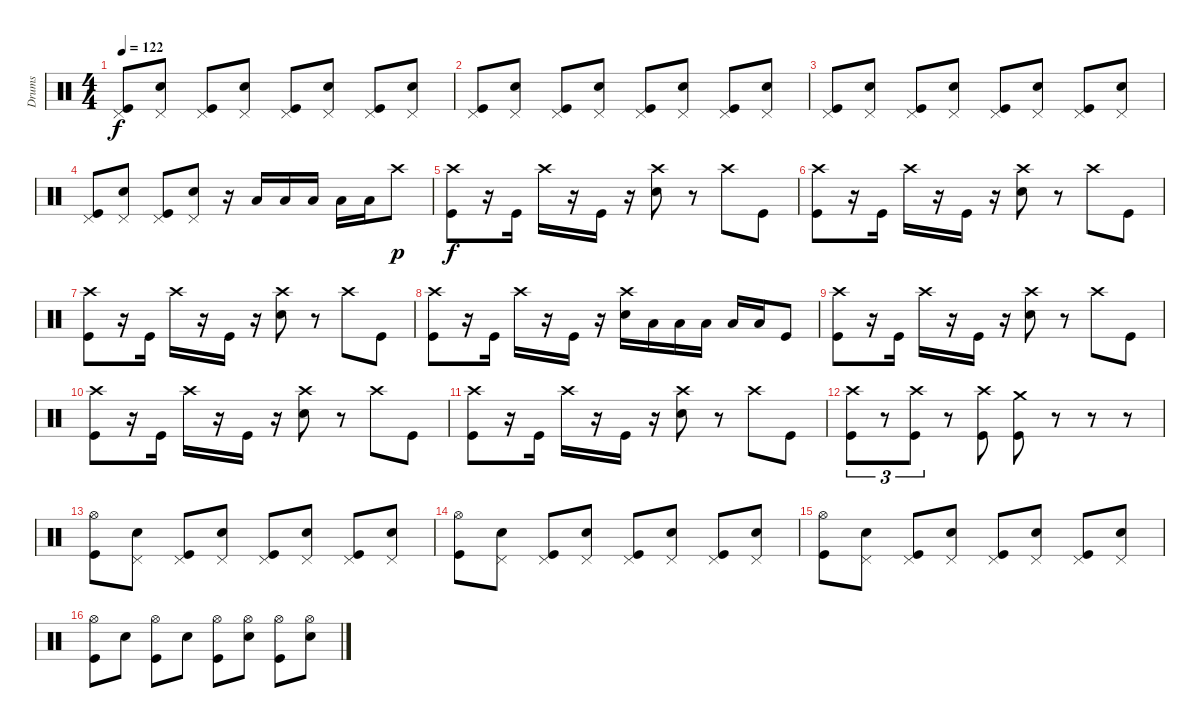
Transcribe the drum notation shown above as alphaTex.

\track ("Drums" "Drums") {instrument percussion}
\staff {score}
\articulation defaults
\ts (4 4)
\tempo 122
\clef neutral
\ks c
("Pedal Hi-Hat (hit)" "Kick (hit)").8{dy f} ("Pedal Hi-Hat (hit)" "Snare (hit) 2").8 ("Pedal Hi-Hat (hit)" "Kick (hit)").8 ("Pedal Hi-Hat (hit)" "Snare (hit) 2").8 ("Pedal Hi-Hat (hit)" "Kick (hit)").8 ("Pedal Hi-Hat (hit)" "Snare (hit) 2").8 ("Pedal Hi-Hat (hit)" "Kick (hit)").8 ("Pedal Hi-Hat (hit)" "Snare (hit) 2").8 |
("Pedal Hi-Hat (hit)" "Kick (hit)").8 ("Pedal Hi-Hat (hit)" "Snare (hit) 2").8 ("Pedal Hi-Hat (hit)" "Kick (hit)").8 ("Pedal Hi-Hat (hit)" "Snare (hit) 2").8 ("Pedal Hi-Hat (hit)" "Kick (hit)").8 ("Pedal Hi-Hat (hit)" "Snare (hit) 2").8 ("Pedal Hi-Hat (hit)" "Kick (hit)").8 ("Pedal Hi-Hat (hit)" "Snare (hit) 2").8 |
("Pedal Hi-Hat (hit)" "Kick (hit)").8 ("Pedal Hi-Hat (hit)" "Snare (hit) 2").8 ("Pedal Hi-Hat (hit)" "Kick (hit)").8 ("Pedal Hi-Hat (hit)" "Snare (hit) 2").8 ("Pedal Hi-Hat (hit)" "Kick (hit)").8 ("Pedal Hi-Hat (hit)" "Snare (hit) 2").8 ("Pedal Hi-Hat (hit)" "Kick (hit)").8 ("Pedal Hi-Hat (hit)" "Snare (hit) 2").8 |
("Pedal Hi-Hat (hit)" "Kick (hit)").8 ("Pedal Hi-Hat (hit)" "Snare (hit) 2").8 ("Pedal Hi-Hat (hit)" "Kick (hit)").8 ("Pedal Hi-Hat (hit)" "Snare (hit) 2").8 r.16 "Low Tom (hit)".16 "Low Tom (hit)".16 "Low Tom (hit)".16 "Low Floor Tom (hit)".16 "Low Floor Tom (hit)".16 "Crash high (hit)".8{dy p} |
("Crash high (hit)" "Kick (hit)").8{dy f} r.16 "Kick (hit)".16 "Crash high (hit)".16 r.16 "Kick (hit)".16 r.16 ("Crash high (hit)" "Snare (hit) 2").8 r.8 "Crash high (hit)".8 "Kick (hit)".8 |
("Crash high (hit)" "Kick (hit)").8 r.16 "Kick (hit)".16 "Crash high (hit)".16 r.16 "Kick (hit)".16 r.16 ("Crash high (hit)" "Snare (hit) 2").8 r.8 "Crash high (hit)".8 "Kick (hit)".8 |
("Crash high (hit)" "Kick (hit)").8 r.16 "Kick (hit)".16 "Crash high (hit)".16 r.16 "Kick (hit)".16 r.16 ("Crash high (hit)" "Snare (hit) 2").8 r.8 "Crash high (hit)".8 "Kick (hit)".8 |
("Crash high (hit)" "Kick (hit)").8 r.16 "Kick (hit)".16 "Crash high (hit)".16 r.16 "Kick (hit)".16 r.16 ("Crash high (hit)" "Snare (hit) 2").16 "Low Tom (hit)".16 "Low Tom (hit)".16 "Low Tom (hit)".16 "Low Floor Tom (hit)".16 "Low Floor Tom (hit)".16 "Kick (hit)".8 |
("Crash high (hit)" "Kick (hit)").8 r.16 "Kick (hit)".16 "Crash high (hit)".16 r.16 "Kick (hit)".16 r.16 ("Crash high (hit)" "Snare (hit) 2").8 r.8 "Crash high (hit)".8 "Kick (hit)".8 |
("Crash high (hit)" "Kick (hit)").8 r.16 "Kick (hit)".16 "Crash high (hit)".16 r.16 "Kick (hit)".16 r.16 ("Crash high (hit)" "Snare (hit) 2").8 r.8 "Crash high (hit)".8 "Kick (hit)".8 |
("Crash high (hit)" "Kick (hit)").8 r.16 "Kick (hit)".16 "Crash high (hit)".16 r.16 "Kick (hit)".16 r.16 ("Crash high (hit)" "Snare (hit) 2").8 r.8 "Crash high (hit)".8 "Kick (hit)".8 |
("Crash high (hit)" "Kick (hit)").8{tu (3 2)} r.8{tu (3 2)} ("Crash high (hit)" "Kick (hit)").8{tu (3 2)} r.8 ("Crash high (hit)" "Kick (hit)").8 ("Crash medium (hit)" "Kick (hit)").8 r.8 r.8 r.8 |
("Hi-Hat (open)" "Kick (hit)").8 ("Pedal Hi-Hat (hit)" "Snare (hit) 2").8 ("Pedal Hi-Hat (hit)" "Kick (hit)").8 ("Pedal Hi-Hat (hit)" "Snare (hit) 2").8 ("Pedal Hi-Hat (hit)" "Kick (hit)").8 ("Pedal Hi-Hat (hit)" "Snare (hit) 2").8 ("Pedal Hi-Hat (hit)" "Kick (hit)").8 ("Pedal Hi-Hat (hit)" "Snare (hit) 2").8 |
("Hi-Hat (open)" "Kick (hit)").8 ("Pedal Hi-Hat (hit)" "Snare (hit) 2").8 ("Pedal Hi-Hat (hit)" "Kick (hit)").8 ("Pedal Hi-Hat (hit)" "Snare (hit) 2").8 ("Pedal Hi-Hat (hit)" "Kick (hit)").8 ("Pedal Hi-Hat (hit)" "Snare (hit) 2").8 ("Pedal Hi-Hat (hit)" "Kick (hit)").8 ("Pedal Hi-Hat (hit)" "Snare (hit) 2").8 |
("Hi-Hat (open)" "Kick (hit)").8 ("Pedal Hi-Hat (hit)" "Snare (hit) 2").8 ("Pedal Hi-Hat (hit)" "Kick (hit)").8 ("Pedal Hi-Hat (hit)" "Snare (hit) 2").8 ("Pedal Hi-Hat (hit)" "Kick (hit)").8 ("Pedal Hi-Hat (hit)" "Snare (hit) 2").8 ("Pedal Hi-Hat (hit)" "Kick (hit)").8 ("Pedal Hi-Hat (hit)" "Snare (hit) 2").8 |
("Hi-Hat (open)" "Kick (hit)").8 "Snare (hit) 2".8 ("Hi-Hat (open)" "Kick (hit)").8 "Snare (hit) 2".8 ("Hi-Hat (open)" "Kick (hit)").8 ("Hi-Hat (open)" "Snare (hit) 2").8 ("Hi-Hat (open)" "Kick (hit)").8 ("Hi-Hat (open)" "Snare (hit) 2").8
